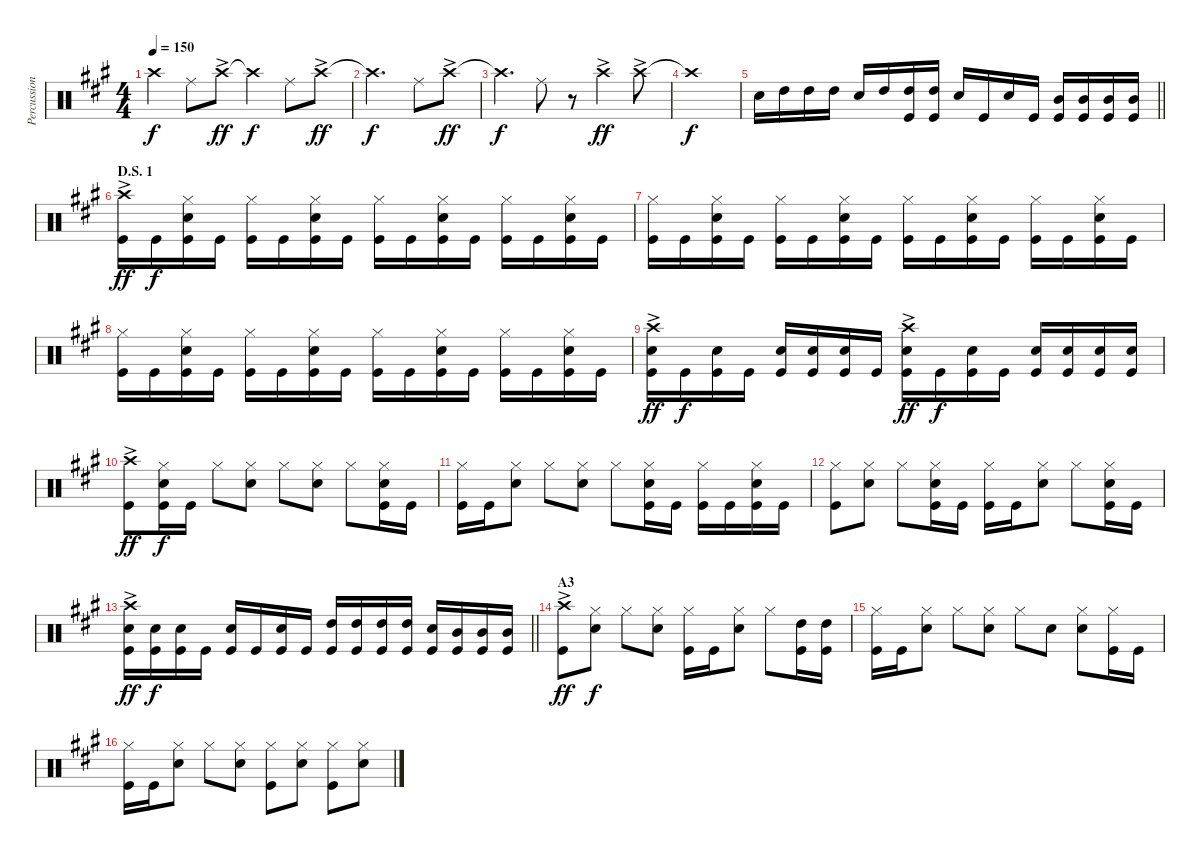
\track ("Percussion" "Percussion") {instrument percussion}
\staff {score}
\articulation defaults
\ts (4 4)
\tempo 150
\clef neutral
\ks a "Crash high (hit)"{t}.4{dy f} "Ride (middle)".8 "Crash high (hit)"{ac}.8{dy ff} "Crash high (hit)"{t}.4{dy f} "Ride (middle)".8 "Crash high (hit)"{ac}.8{dy ff}
|
"Crash high (hit)"{t}.2{d dy f} "Ride (middle)".8 "Crash high (hit)"{ac}.8{dy ff} |
"Crash high (hit)"{t}.4{d dy f} "Ride (middle)".8 r.8 "Crash high (hit)"{ac}.4{dy ff} "Crash high (hit)"{ac}.8 |
"Crash high (hit)"{t}.1{dy f} |
\barLineRight lightlight "Snare (hit) 2".16 "High Tom (hit)".16 "High Tom (hit)".16 "High Tom (hit)".16 "Snare (hit) 2".16 "High Tom (hit)".16
("High Tom (hit)" "Kick (hit)").16 ("High Tom (hit)" "Kick (hit)").16 "Snare (hit) 2".16 "Kick (hit)".16 "Snare (hit) 2".16 "Kick (hit)".16 ("Kick (hit)" "Mid Tom (hit)").16 ("Mid Tom (hit)" "Kick (hit)").16 ("Kick (hit)" "Mid Tom (hit)").16 ("Mid Tom (hit)" "Kick (hit)").16 |
\section ("" "D.S. 1")
("Crash high (hit)"{ac} "Kick (hit)").16{dy ff} "Kick (hit)".16{dy f} ("Hi-Hat (closed)" "Snare (hit) 2" "Kick (hit)").16 "Kick (hit)".16 ("Hi-Hat (closed)" "Kick (hit)").16 "Kick (hit)".16 ("Kick (hit)" "Hi-Hat (closed)" "Snare (hit) 2").16 "Kick (hit)".16 ("Kick (hit)" "Hi-Hat (closed)").16 "Kick (hit)".16 ("Hi-Hat (closed)" "Kick (hit)" "Snare (hit) 2").16 "Kick (hit)".16 ("Hi-Hat (closed)" "Kick (hit)").16 "Kick (hit)".16 ("Hi-Hat (closed)" "Kick (hit)" "Snare (hit) 2").16 "Kick (hit)".16 |
("Hi-Hat (closed)" "Kick (hit)").16 "Kick (hit)".16 ("Hi-Hat (closed)" "Snare (hit) 2" "Kick (hit)").16 "Kick (hit)".16 ("Hi-Hat (closed)" "Kick (hit)").16 "Kick (hit)".16 ("Kick (hit)" "Hi-Hat (closed)" "Snare (hit) 2").16 "Kick (hit)".16 ("Kick (hit)" "Hi-Hat (closed)").16 "Kick (hit)".16 ("Hi-Hat (closed)" "Kick (hit)" "Snare (hit) 2").16 "Kick (hit)".16 ("Hi-Hat (closed)" "Kick (hit)").16 "Kick (hit)".16 ("Hi-Hat (closed)" "Kick (hit)" "Snare (hit) 2").16 "Kick (hit)".16 |
("Hi-Hat (closed)" "Kick (hit)").16 "Kick (hit)".16 ("Hi-Hat (closed)" "Snare (hit) 2" "Kick (hit)").16 "Kick (hit)".16 ("Hi-Hat (closed)" "Kick (hit)").16 "Kick (hit)".16 ("Kick (hit)" "Hi-Hat (closed)" "Snare (hit) 2").16 "Kick (hit)".16 ("Kick (hit)" "Hi-Hat (closed)").16 "Kick (hit)".16 ("Hi-Hat (closed)" "Kick (hit)" "Snare (hit) 2").16 "Kick (hit)".16 ("Hi-Hat (closed)" "Kick (hit)").16 "Kick (hit)".16 ("Hi-Hat (closed)" "Kick (hit)" "Snare (hit) 2").16 "Kick (hit)".16 |
("Crash high (hit)"{ac} "Snare (hit) 2" "Kick (hit)").16{dy ff} "Kick (hit)".16{dy f} ("Snare (hit) 2" "Kick (hit)").16 "Kick (hit)".16 ("Snare (hit) 2" "Kick (hit)").16 ("Snare (hit) 2" "Kick (hit)").16 ("Kick (hit)" "Snare (hit) 2").16 "Kick (hit)".16 ("Kick (hit)" "Crash high (hit)"{ac} "Snare (hit) 2").16{dy ff} "Kick (hit)".16{dy f} ("Kick (hit)" "Snare (hit) 2").16 "Kick (hit)".16 ("Kick (hit)" "Snare (hit) 2").16 ("Kick (hit)" "Snare (hit) 2").16 ("Kick (hit)" "Snare (hit) 2").16 ("Kick (hit)" "Snare (hit) 2").16 |
("Crash high (hit)"{ac} "Kick (hit)").8{dy ff} ("Hi-Hat (closed)" "Snare (hit) 2" "Kick (hit)").16{dy f} "Kick (hit)".16 "Hi-Hat (closed)".8 ("Hi-Hat (closed)" "Snare (hit) 2").8 "Hi-Hat (closed)".8 ("Hi-Hat (closed)" "Snare (hit) 2").8 "Hi-Hat (closed)".8 ("Hi-Hat (closed)" "Snare (hit) 2" "Kick (hit)").16 "Kick (hit)".16 |
("Kick (hit)" "Hi-Hat (closed)").16 "Kick (hit)".16 ("Hi-Hat (closed)" "Snare (hit) 2").8 "Hi-Hat (closed)".8 ("Hi-Hat (closed)" "Snare (hit) 2").8 "Hi-Hat (closed)".8 ("Hi-Hat (closed)" "Snare (hit) 2" "Kick (hit)").16 "Kick (hit)".16 ("Kick (hit)" "Hi-Hat (closed)").16 "Kick (hit)".16 ("Kick (hit)" "Hi-Hat (closed)" "Snare (hit) 2").16 "Kick (hit)".16 |
("Kick (hit)" "Hi-Hat (closed)").8 ("Hi-Hat (closed)" "Snare (hit) 2").8 "Hi-Hat (closed)".8 ("Hi-Hat (closed)" "Snare (hit) 2" "Kick (hit)").16 "Kick (hit)".16 ("Kick (hit)" "Hi-Hat (closed)").16 "Kick (hit)".16 ("Hi-Hat (closed)" "Snare (hit) 2").8 "Hi-Hat (closed)".8 ("Hi-Hat (closed)" "Snare (hit) 2" "Kick (hit)").16 "Kick (hit)".16 |
\barLineRight lightlight
("Crash high (hit)"{ac} "Snare (hit) 2" "Kick (hit)").16{dy ff} ("Snare (hit) 2" "Kick (hit)").16{dy f} ("Snare (hit) 2" "Kick (hit)").16 "Kick (hit)".16 ("Kick (hit)" "Snare (hit) 2").16 "Kick (hit)".16 ("Kick (hit)" "Snare (hit) 2").16 "Kick (hit)".16 ("Kick (hit)" "High Tom (hit)").16 ("Kick (hit)" "High Tom (hit)").16 ("Kick (hit)" "High Tom (hit)").16 ("Kick (hit)" "High Tom (hit)").16 ("Kick (hit)" "Snare (hit) 2").16 ("Kick (hit)" "Mid Tom (hit)").16 ("Kick (hit)" "Mid Tom (hit)").16 ("Kick (hit)" "Mid Tom (hit)").16 |
\section ("" "A3")
("Crash high (hit)"{ac} "Kick (hit)").8{dy ff} ("Hi-Hat (closed)" "Snare (hit) 2").8{dy f} "Hi-Hat (closed)".8 ("Hi-Hat (closed)" "Snare (hit) 2").8 ("Hi-Hat (closed)" "Kick (hit)").16 "Kick (hit)".16 ("Hi-Hat (closed)" "Snare (hit) 2").8 "Hi-Hat (closed)".8 ("High Tom (hit)" "Kick (hit)").16 ("High Tom (hit)" "Kick (hit)").16 |
("Kick (hit)" "Hi-Hat (closed)").16 "Kick (hit)".16 ("Hi-Hat (closed)" "Snare (hit) 2").8 "Hi-Hat (closed)".8 ("Hi-Hat (closed)" "Snare (hit) 2").8 "Hi-Hat (closed)".8 "Snare (hit) 2".8 ("Hi-Hat (closed)" "Snare (hit) 2").8 ("Hi-Hat (closed)" "Kick (hit)").16 "Kick (hit)".16 |
("Kick (hit)" "Hi-Hat (closed)").16 "Kick (hit)".16 ("Hi-Hat (closed)" "Snare (hit) 2").8 "Hi-Hat (closed)".8 ("Hi-Hat (closed)" "Snare (hit) 2").8 ("Hi-Hat (closed)" "Kick (hit)").8 ("Hi-Hat (closed)" "Snare (hit) 2").8 ("Kick (hit)" "Hi-Hat (closed)").8 ("Hi-Hat (closed)" "Snare (hit) 2").8
